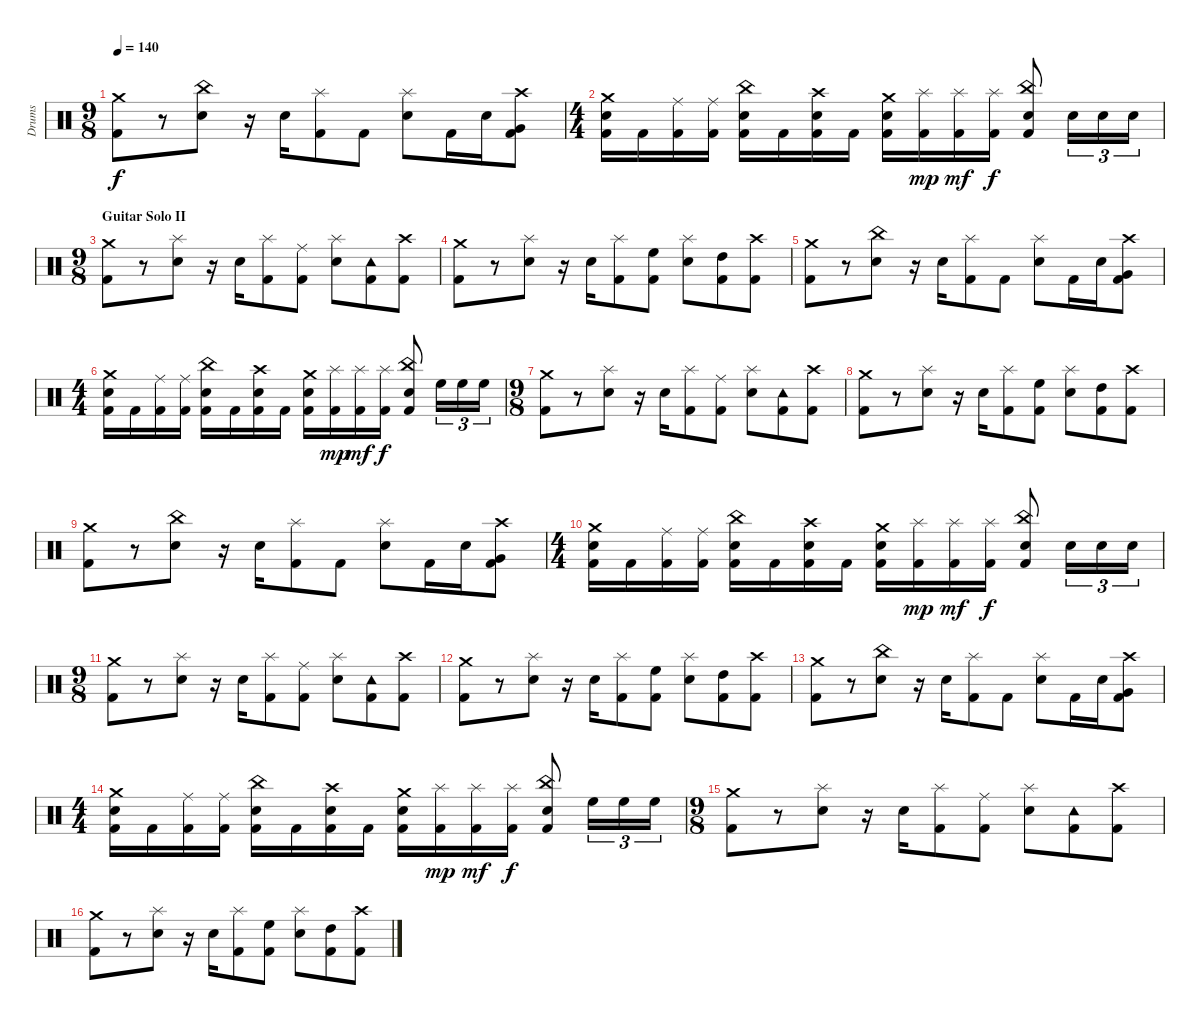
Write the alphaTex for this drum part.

\track ("Drums" "Drums") {instrument percussion}
\staff {score}
\articulation defaults
\ts (9 8)
\tempo 140
\clef neutral
\ks c
("Crash medium (hit)" "Kick (hit) 2").8{dy f} r.8 ("China (hit)" "Electric Snare (hit)").8 r.16 "Electric Snare (hit)".16 ("Splash (hit)" "Kick (hit) 2").8 "Kick (hit) 2".8 ("Splash (hit)" "Electric Snare (hit)").8 "Kick (hit) 2".16 "Electric Snare (hit)".16 ("Crash high (hit)" "Very Low Tom (hit)" "Kick (hit) 2").8 |
\ts (4 4)
("Crash medium (hit)" "Electric Snare (hit)" "Kick (hit) 2").16 "Kick (hit) 2".16 ("Ride (middle)" "Kick (hit) 2").16 ("Ride (middle)" "Kick (hit) 2").16 ("China (hit)" "Electric Snare (hit)" "Kick (hit) 2").16 "Kick (hit) 2".16 ("Crash high (hit)" "Electric Snare (hit)" "Kick (hit) 2").16 "Kick (hit) 2".16 ("Crash medium (hit)" "Electric Snare (hit)" "Kick (hit) 2").16 ("Splash (hit)" "Kick (hit) 2").16{dy mp} ("Splash (hit)" "Kick (hit) 2").16{dy mf} ("Splash (hit)" "Kick (hit) 2").16{dy f} ("China (hit)" "Electric Snare (hit)" "Kick (hit) 2").8 "Electric Snare (hit)".16{tu (3 2)} "Electric Snare (hit)".16{tu (3 2)} "Electric Snare (hit)".16{tu (3 2)} |
\ts (9 8)
\section ("" "Guitar Solo II")
("Crash medium (hit)" "Kick (hit) 2").8 r.8 ("Splash (hit)" "Electric Snare (hit)").8 r.16 "Electric Snare (hit)".16 ("Splash (hit)" "Kick (hit) 2").8 ("Ride (middle)" "Kick (hit) 2").8 ("Splash (hit)" "Electric Snare (hit)").8 ("Tambourine (hit)" "Kick (hit) 2").8 ("Crash high (hit)" "Kick (hit) 2").8 |
("Crash medium (hit)" "Kick (hit) 2").8 r.8 ("Splash (hit)" "Electric Snare (hit)").8 r.16 "Electric Snare (hit)".16 ("Splash (hit)" "Kick (hit) 2").8 ("High Floor Tom (hit)" "Kick (hit) 2").8 ("Splash (hit)" "Electric Snare (hit)").8 ("High Tom (hit)" "Kick (hit) 2").8 ("Crash high (hit)" "Kick (hit) 2").8 |
("Crash medium (hit)" "Kick (hit) 2").8 r.8 ("China (hit)" "Electric Snare (hit)").8 r.16 "Electric Snare (hit)".16 ("Splash (hit)" "Kick (hit) 2").8 "Kick (hit) 2".8 ("Splash (hit)" "Electric Snare (hit)").8 "Kick (hit) 2".16 "Electric Snare (hit)".16 ("Crash high (hit)" "Very Low Tom (hit)" "Kick (hit) 2").8 |
\ts (4 4)
("Crash medium (hit)" "Electric Snare (hit)" "Kick (hit) 2").16 "Kick (hit) 2".16 ("Ride (middle)" "Kick (hit) 2").16 ("Ride (middle)" "Kick (hit) 2").16 ("China (hit)" "Electric Snare (hit)" "Kick (hit) 2").16 "Kick (hit) 2".16 ("Crash high (hit)" "Electric Snare (hit)" "Kick (hit) 2").16 "Kick (hit) 2".16 ("Crash medium (hit)" "Electric Snare (hit)" "Kick (hit) 2").16 ("Splash (hit)" "Kick (hit) 2").16{dy mp} ("Splash (hit)" "Kick (hit) 2").16{dy mf} ("Splash (hit)" "Kick (hit) 2").16{dy f} ("China (hit)" "Electric Snare (hit)" "Kick (hit) 2").8 "High Floor Tom (hit)".16{tu (3 2)} "High Floor Tom (hit)".16{tu (3 2)} "High Floor Tom (hit)".16{tu (3 2)} |
\ts (9 8)
("Crash medium (hit)" "Kick (hit) 2").8 r.8 ("Splash (hit)" "Electric Snare (hit)").8 r.16 "Electric Snare (hit)".16 ("Splash (hit)" "Kick (hit) 2").8 ("Ride (middle)" "Kick (hit) 2").8 ("Splash (hit)" "Electric Snare (hit)").8 ("Tambourine (hit)" "Kick (hit) 2").8 ("Crash high (hit)" "Kick (hit) 2").8 |
("Crash medium (hit)" "Kick (hit) 2").8 r.8 ("Splash (hit)" "Electric Snare (hit)").8 r.16 "Electric Snare (hit)".16 ("Splash (hit)" "Kick (hit) 2").8 ("High Floor Tom (hit)" "Kick (hit) 2").8 ("Splash (hit)" "Electric Snare (hit)").8 ("High Tom (hit)" "Kick (hit) 2").8 ("Crash high (hit)" "Kick (hit) 2").8 |
("Crash medium (hit)" "Kick (hit) 2").8 r.8 ("China (hit)" "Electric Snare (hit)").8 r.16 "Electric Snare (hit)".16 ("Splash (hit)" "Kick (hit) 2").8 "Kick (hit) 2".8 ("Splash (hit)" "Electric Snare (hit)").8 "Kick (hit) 2".16 "Electric Snare (hit)".16 ("Crash high (hit)" "Very Low Tom (hit)" "Kick (hit) 2").8 |
\ts (4 4)
("Crash medium (hit)" "Electric Snare (hit)" "Kick (hit) 2").16 "Kick (hit) 2".16 ("Ride (middle)" "Kick (hit) 2").16 ("Ride (middle)" "Kick (hit) 2").16 ("China (hit)" "Electric Snare (hit)" "Kick (hit) 2").16 "Kick (hit) 2".16 ("Crash high (hit)" "Electric Snare (hit)" "Kick (hit) 2").16 "Kick (hit) 2".16 ("Crash medium (hit)" "Electric Snare (hit)" "Kick (hit) 2").16 ("Splash (hit)" "Kick (hit) 2").16{dy mp} ("Splash (hit)" "Kick (hit) 2").16{dy mf} ("Splash (hit)" "Kick (hit) 2").16{dy f} ("China (hit)" "Electric Snare (hit)" "Kick (hit) 2").8 "Electric Snare (hit)".16{tu (3 2)} "Electric Snare (hit)".16{tu (3 2)} "Electric Snare (hit)".16{tu (3 2)} |
\ts (9 8)
("Crash medium (hit)" "Kick (hit) 2").8 r.8 ("Splash (hit)" "Electric Snare (hit)").8 r.16 "Electric Snare (hit)".16 ("Splash (hit)" "Kick (hit) 2").8 ("Ride (middle)" "Kick (hit) 2").8 ("Splash (hit)" "Electric Snare (hit)").8 ("Tambourine (hit)" "Kick (hit) 2").8 ("Crash high (hit)" "Kick (hit) 2").8 |
("Crash medium (hit)" "Kick (hit) 2").8 r.8 ("Splash (hit)" "Electric Snare (hit)").8 r.16 "Electric Snare (hit)".16 ("Splash (hit)" "Kick (hit) 2").8 ("High Floor Tom (hit)" "Kick (hit) 2").8 ("Splash (hit)" "Electric Snare (hit)").8 ("High Tom (hit)" "Kick (hit) 2").8 ("Crash high (hit)" "Kick (hit) 2").8 |
("Crash medium (hit)" "Kick (hit) 2").8 r.8 ("China (hit)" "Electric Snare (hit)").8 r.16 "Electric Snare (hit)".16 ("Splash (hit)" "Kick (hit) 2").8 "Kick (hit) 2".8 ("Splash (hit)" "Electric Snare (hit)").8 "Kick (hit) 2".16 "Electric Snare (hit)".16 ("Crash high (hit)" "Very Low Tom (hit)" "Kick (hit) 2").8 |
\ts (4 4)
("Crash medium (hit)" "Electric Snare (hit)" "Kick (hit) 2").16 "Kick (hit) 2".16 ("Ride (middle)" "Kick (hit) 2").16 ("Ride (middle)" "Kick (hit) 2").16 ("China (hit)" "Electric Snare (hit)" "Kick (hit) 2").16 "Kick (hit) 2".16 ("Crash high (hit)" "Electric Snare (hit)" "Kick (hit) 2").16 "Kick (hit) 2".16 ("Crash medium (hit)" "Electric Snare (hit)" "Kick (hit) 2").16 ("Splash (hit)" "Kick (hit) 2").16{dy mp} ("Splash (hit)" "Kick (hit) 2").16{dy mf} ("Splash (hit)" "Kick (hit) 2").16{dy f} ("China (hit)" "Electric Snare (hit)" "Kick (hit) 2").8 "High Floor Tom (hit)".16{tu (3 2)} "High Floor Tom (hit)".16{tu (3 2)} "High Floor Tom (hit)".16{tu (3 2)} |
\ts (9 8)
("Crash medium (hit)" "Kick (hit) 2").8 r.8 ("Splash (hit)" "Electric Snare (hit)").8 r.16 "Electric Snare (hit)".16 ("Splash (hit)" "Kick (hit) 2").8 ("Ride (middle)" "Kick (hit) 2").8 ("Splash (hit)" "Electric Snare (hit)").8 ("Tambourine (hit)" "Kick (hit) 2").8 ("Crash high (hit)" "Kick (hit) 2").8 |
("Crash medium (hit)" "Kick (hit) 2").8 r.8 ("Splash (hit)" "Electric Snare (hit)").8 r.16 "Electric Snare (hit)".16 ("Splash (hit)" "Kick (hit) 2").8 ("High Floor Tom (hit)" "Kick (hit) 2").8 ("Splash (hit)" "Electric Snare (hit)").8 ("High Tom (hit)" "Kick (hit) 2").8 ("Crash high (hit)" "Kick (hit) 2").8
